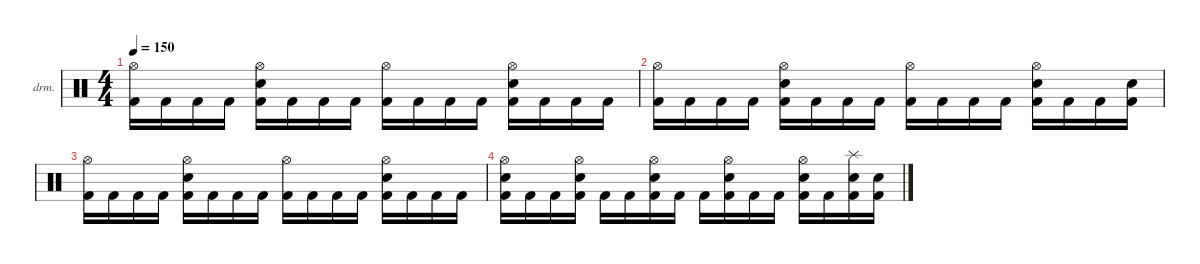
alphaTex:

\defaultSystemsLayout 4
\hideDynamics
\bracketExtendMode nobrackets
\firstSystemTrackNameOrientation horizontal
\otherSystemsTrackNameOrientation horizontal
\track ("Drumkit" "drm.") {mute instrument percussion}
\staff {score}
\articulation defaults
\ts (4 4)
\tempo 150
\clef neutral
\ks c
("Hi-Hat (open)" "Kick (hit) 2").16{dy ff} "Kick (hit) 2".16 "Kick (hit) 2".16 "Kick (hit) 2".16 ("Hi-Hat (open)" "Snare (hit) 2" "Kick (hit) 2").16 "Kick (hit) 2".16 "Kick (hit) 2".16 "Kick (hit) 2".16 ("Hi-Hat (open)" "Kick (hit) 2").16 "Kick (hit) 2".16 "Kick (hit) 2".16 "Kick (hit) 2".16 ("Hi-Hat (open)" "Snare (hit) 2" "Kick (hit) 2").16 "Kick (hit) 2".16 "Kick (hit) 2".16 "Kick (hit) 2".16 |
("Hi-Hat (open)" "Kick (hit) 2").16 "Kick (hit) 2".16 "Kick (hit) 2".16 "Kick (hit) 2".16 ("Hi-Hat (open)" "Snare (hit) 2" "Kick (hit) 2").16 "Kick (hit) 2".16 "Kick (hit) 2".16 "Kick (hit) 2".16 ("Hi-Hat (open)" "Kick (hit) 2").16 "Kick (hit) 2".16 "Kick (hit) 2".16 "Kick (hit) 2".16 ("Hi-Hat (open)" "Snare (hit) 2" "Kick (hit) 2").16 "Kick (hit) 2".16 "Kick (hit) 2".16 ("Snare (hit) 2" "Kick (hit) 2").16 |
("Hi-Hat (open)" "Kick (hit) 2").16 "Kick (hit) 2".16 "Kick (hit) 2".16 "Kick (hit) 2".16 ("Hi-Hat (open)" "Snare (hit) 2" "Kick (hit) 2").16 "Kick (hit) 2".16 "Kick (hit) 2".16 "Kick (hit) 2".16 ("Hi-Hat (open)" "Kick (hit) 2").16 "Kick (hit) 2".16 "Kick (hit) 2".16 "Kick (hit) 2".16 ("Hi-Hat (open)" "Snare (hit) 2" "Kick (hit) 2").16 "Kick (hit) 2".16 "Kick (hit) 2".16 "Kick (hit) 2".16 |
("Hi-Hat (open)" "Snare (hit) 2" "Kick (hit) 2").16 "Kick (hit) 2".16 "Kick (hit) 2".16 ("Hi-Hat (open)" "Snare (hit) 2" "Kick (hit) 2").16 "Kick (hit) 2".16 "Kick (hit) 2".16 ("Hi-Hat (open)" "Snare (hit) 2" "Kick (hit) 2").16 "Kick (hit) 2".16 "Kick (hit) 2".16 ("Hi-Hat (open)" "Snare (hit) 2" "Kick (hit) 2").16 "Kick (hit) 2".16 "Kick (hit) 2".16 ("Hi-Hat (open)" "Snare (hit) 2" "Kick (hit) 2").16 "Kick (hit) 2".16 ("Splash (hit)" "Snare (hit) 2" "Kick (hit) 2").16 ("Snare (hit) 2" "Kick (hit) 2").16
